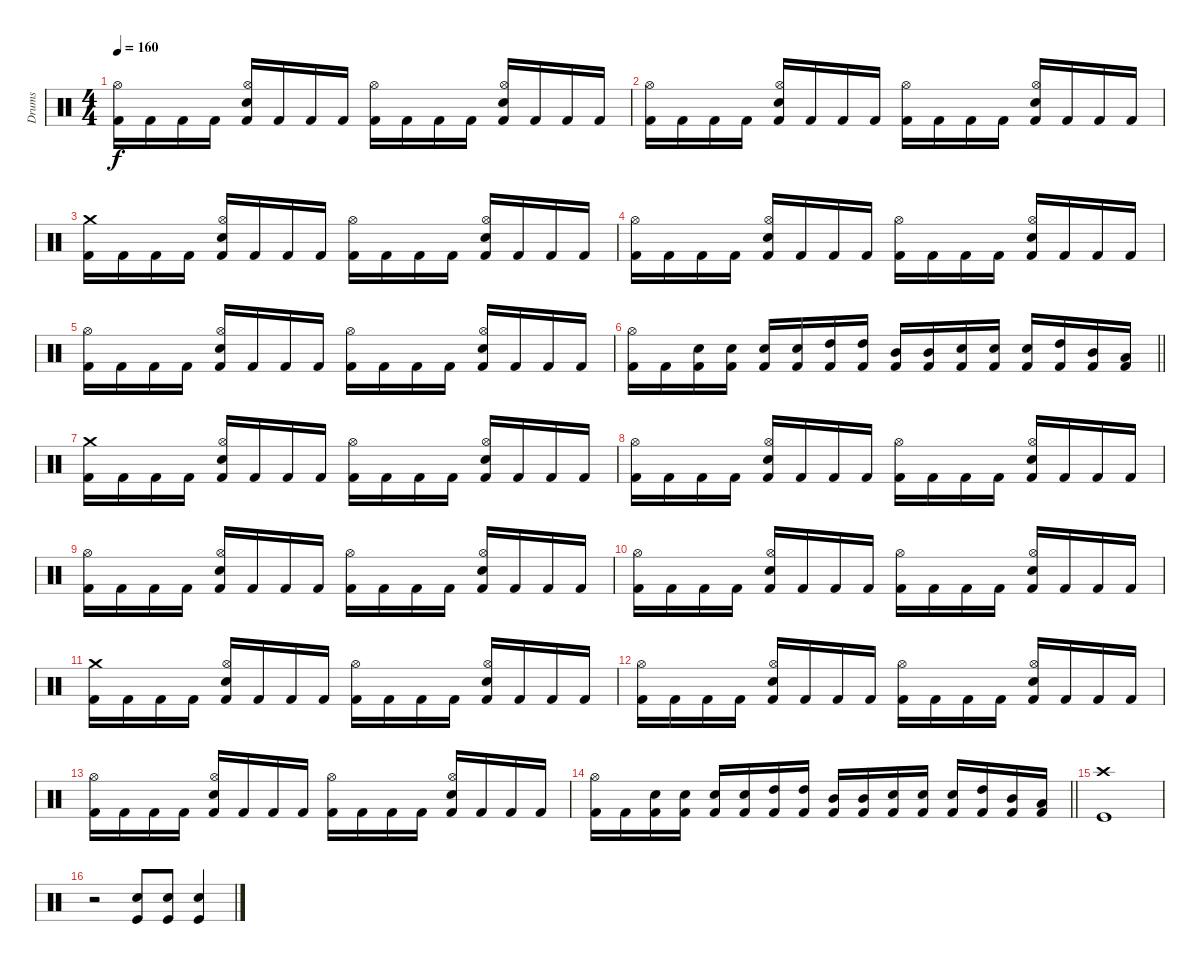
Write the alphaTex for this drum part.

\track ("Drums" "Drums") {instrument percussion}
\staff {score}
\articulation defaults
\ts (4 4)
\tempo 160
\clef neutral
\ks c
("Kick (hit) 2" "Hi-Hat (open)").16{dy f} "Kick (hit) 2".16 "Kick (hit) 2".16 "Kick (hit) 2".16 ("Kick (hit) 2" "Electric Snare (hit)" "Hi-Hat (open)").16 "Kick (hit) 2".16 "Kick (hit) 2".16 "Kick (hit) 2".16 ("Kick (hit) 2" "Hi-Hat (open)").16 "Kick (hit) 2".16 "Kick (hit) 2".16 "Kick (hit) 2".16 ("Kick (hit) 2" "Electric Snare (hit)" "Hi-Hat (open)").16 "Kick (hit) 2".16 "Kick (hit) 2".16 "Kick (hit) 2".16 |
("Kick (hit) 2" "Hi-Hat (open)").16 "Kick (hit) 2".16 "Kick (hit) 2".16 "Kick (hit) 2".16 ("Kick (hit) 2" "Electric Snare (hit)" "Hi-Hat (open)").16 "Kick (hit) 2".16 "Kick (hit) 2".16 "Kick (hit) 2".16 ("Kick (hit) 2" "Hi-Hat (open)").16 "Kick (hit) 2".16 "Kick (hit) 2".16 "Kick (hit) 2".16 ("Kick (hit) 2" "Electric Snare (hit)" "Hi-Hat (open)").16 "Kick (hit) 2".16 "Kick (hit) 2".16 "Kick (hit) 2".16 |
("Kick (hit) 2" "Crash medium (hit)").16 "Kick (hit) 2".16 "Kick (hit) 2".16 "Kick (hit) 2".16 ("Kick (hit) 2" "Electric Snare (hit)" "Hi-Hat (open)").16 "Kick (hit) 2".16 "Kick (hit) 2".16 "Kick (hit) 2".16 ("Kick (hit) 2" "Hi-Hat (open)").16 "Kick (hit) 2".16 "Kick (hit) 2".16 "Kick (hit) 2".16 ("Kick (hit) 2" "Electric Snare (hit)" "Hi-Hat (open)").16 "Kick (hit) 2".16 "Kick (hit) 2".16 "Kick (hit) 2".16 |
("Kick (hit) 2" "Hi-Hat (open)").16 "Kick (hit) 2".16 "Kick (hit) 2".16 "Kick (hit) 2".16 ("Kick (hit) 2" "Electric Snare (hit)" "Hi-Hat (open)").16 "Kick (hit) 2".16 "Kick (hit) 2".16 "Kick (hit) 2".16 ("Kick (hit) 2" "Hi-Hat (open)").16 "Kick (hit) 2".16 "Kick (hit) 2".16 "Kick (hit) 2".16 ("Kick (hit) 2" "Electric Snare (hit)" "Hi-Hat (open)").16 "Kick (hit) 2".16 "Kick (hit) 2".16 "Kick (hit) 2".16 |
("Kick (hit) 2" "Hi-Hat (open)").16 "Kick (hit) 2".16 "Kick (hit) 2".16 "Kick (hit) 2".16 ("Kick (hit) 2" "Electric Snare (hit)" "Hi-Hat (open)").16 "Kick (hit) 2".16 "Kick (hit) 2".16 "Kick (hit) 2".16 ("Kick (hit) 2" "Hi-Hat (open)").16 "Kick (hit) 2".16 "Kick (hit) 2".16 "Kick (hit) 2".16 ("Kick (hit) 2" "Electric Snare (hit)" "Hi-Hat (open)").16 "Kick (hit) 2".16 "Kick (hit) 2".16 "Kick (hit) 2".16 |
\barLineRight lightlight
("Kick (hit) 2" "Hi-Hat (open)").16 "Kick (hit) 2".16 ("Kick (hit) 2" "Electric Snare (hit)").16 ("Kick (hit) 2" "Electric Snare (hit)").16 ("Kick (hit) 2" "Electric Snare (hit)").16 ("Kick (hit) 2" "Electric Snare (hit)").16 ("Kick (hit) 2" "High Tom (hit)").16 ("Kick (hit) 2" "High Tom (hit)").16 ("Kick (hit) 2" "Mid Tom (hit)").16 ("Kick (hit) 2" "Mid Tom (hit)").16 ("Kick (hit) 2" "Electric Snare (hit)").16 ("Kick (hit) 2" "Electric Snare (hit)").16 ("Kick (hit) 2" "Electric Snare (hit)").16 ("Kick (hit) 2" "High Tom (hit)").16 ("Kick (hit) 2" "Mid Tom (hit)").16 ("Kick (hit) 2" "Low Tom (hit)").16 |
("Kick (hit) 2" "Crash medium (hit)").16 "Kick (hit) 2".16 "Kick (hit) 2".16 "Kick (hit) 2".16 ("Kick (hit) 2" "Electric Snare (hit)" "Hi-Hat (open)").16 "Kick (hit) 2".16 "Kick (hit) 2".16 "Kick (hit) 2".16 ("Kick (hit) 2" "Hi-Hat (open)").16 "Kick (hit) 2".16 "Kick (hit) 2".16 "Kick (hit) 2".16 ("Kick (hit) 2" "Electric Snare (hit)" "Hi-Hat (open)").16 "Kick (hit) 2".16 "Kick (hit) 2".16 "Kick (hit) 2".16 |
("Kick (hit) 2" "Hi-Hat (open)").16 "Kick (hit) 2".16 "Kick (hit) 2".16 "Kick (hit) 2".16 ("Kick (hit) 2" "Electric Snare (hit)" "Hi-Hat (open)").16 "Kick (hit) 2".16 "Kick (hit) 2".16 "Kick (hit) 2".16 ("Kick (hit) 2" "Hi-Hat (open)").16 "Kick (hit) 2".16 "Kick (hit) 2".16 "Kick (hit) 2".16 ("Kick (hit) 2" "Electric Snare (hit)" "Hi-Hat (open)").16 "Kick (hit) 2".16 "Kick (hit) 2".16 "Kick (hit) 2".16 |
("Kick (hit) 2" "Hi-Hat (open)").16 "Kick (hit) 2".16 "Kick (hit) 2".16 "Kick (hit) 2".16 ("Kick (hit) 2" "Electric Snare (hit)" "Hi-Hat (open)").16 "Kick (hit) 2".16 "Kick (hit) 2".16 "Kick (hit) 2".16 ("Kick (hit) 2" "Hi-Hat (open)").16 "Kick (hit) 2".16 "Kick (hit) 2".16 "Kick (hit) 2".16 ("Kick (hit) 2" "Electric Snare (hit)" "Hi-Hat (open)").16 "Kick (hit) 2".16 "Kick (hit) 2".16 "Kick (hit) 2".16 |
("Kick (hit) 2" "Hi-Hat (open)").16 "Kick (hit) 2".16 "Kick (hit) 2".16 "Kick (hit) 2".16 ("Kick (hit) 2" "Electric Snare (hit)" "Hi-Hat (open)").16 "Kick (hit) 2".16 "Kick (hit) 2".16 "Kick (hit) 2".16 ("Kick (hit) 2" "Hi-Hat (open)").16 "Kick (hit) 2".16 "Kick (hit) 2".16 "Kick (hit) 2".16 ("Kick (hit) 2" "Electric Snare (hit)" "Hi-Hat (open)").16 "Kick (hit) 2".16 "Kick (hit) 2".16 "Kick (hit) 2".16 |
("Kick (hit) 2" "Crash medium (hit)").16 "Kick (hit) 2".16 "Kick (hit) 2".16 "Kick (hit) 2".16 ("Kick (hit) 2" "Electric Snare (hit)" "Hi-Hat (open)").16 "Kick (hit) 2".16 "Kick (hit) 2".16 "Kick (hit) 2".16 ("Kick (hit) 2" "Hi-Hat (open)").16 "Kick (hit) 2".16 "Kick (hit) 2".16 "Kick (hit) 2".16 ("Kick (hit) 2" "Electric Snare (hit)" "Hi-Hat (open)").16 "Kick (hit) 2".16 "Kick (hit) 2".16 "Kick (hit) 2".16 |
("Kick (hit) 2" "Hi-Hat (open)").16 "Kick (hit) 2".16 "Kick (hit) 2".16 "Kick (hit) 2".16 ("Kick (hit) 2" "Electric Snare (hit)" "Hi-Hat (open)").16 "Kick (hit) 2".16 "Kick (hit) 2".16 "Kick (hit) 2".16 ("Kick (hit) 2" "Hi-Hat (open)").16 "Kick (hit) 2".16 "Kick (hit) 2".16 "Kick (hit) 2".16 ("Kick (hit) 2" "Electric Snare (hit)" "Hi-Hat (open)").16 "Kick (hit) 2".16 "Kick (hit) 2".16 "Kick (hit) 2".16 |
("Kick (hit) 2" "Hi-Hat (open)").16 "Kick (hit) 2".16 "Kick (hit) 2".16 "Kick (hit) 2".16 ("Kick (hit) 2" "Electric Snare (hit)" "Hi-Hat (open)").16 "Kick (hit) 2".16 "Kick (hit) 2".16 "Kick (hit) 2".16 ("Kick (hit) 2" "Hi-Hat (open)").16 "Kick (hit) 2".16 "Kick (hit) 2".16 "Kick (hit) 2".16 ("Kick (hit) 2" "Electric Snare (hit)" "Hi-Hat (open)").16 "Kick (hit) 2".16 "Kick (hit) 2".16 "Kick (hit) 2".16 |
\barLineRight lightlight
("Kick (hit) 2" "Hi-Hat (open)").16 "Kick (hit) 2".16 ("Kick (hit) 2" "Electric Snare (hit)").16 ("Kick (hit) 2" "Electric Snare (hit)").16 ("Kick (hit) 2" "Electric Snare (hit)").16 ("Kick (hit) 2" "Electric Snare (hit)").16 ("Kick (hit) 2" "High Tom (hit)").16 ("Kick (hit) 2" "High Tom (hit)").16 ("Kick (hit) 2" "Mid Tom (hit)").16 ("Kick (hit) 2" "Mid Tom (hit)").16 ("Kick (hit) 2" "Electric Snare (hit)").16 ("Kick (hit) 2" "Electric Snare (hit)").16 ("Kick (hit) 2" "Electric Snare (hit)").16 ("Kick (hit) 2" "High Tom (hit)").16 ("Kick (hit) 2" "Mid Tom (hit)").16 ("Kick (hit) 2" "Low Tom (hit)").16 |
\section ("" "")
("Crash high (hit)" "Kick (hit)").1 |
r.2 ("Electric Snare (hit)" "Kick (hit)").8 ("Electric Snare (hit)" "Kick (hit)").8 ("Electric Snare (hit)" "Kick (hit)").4
